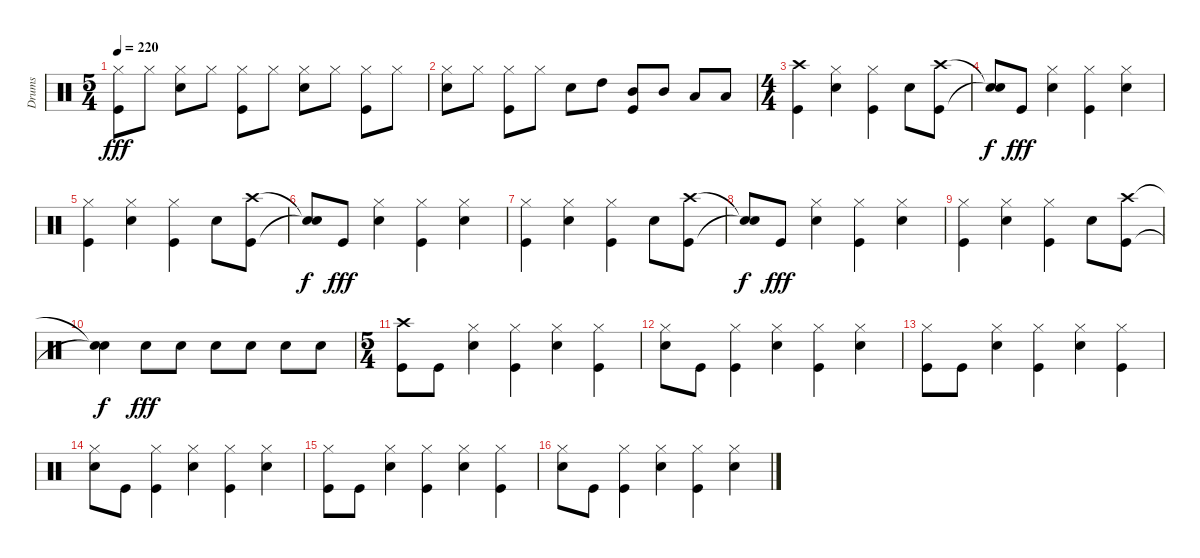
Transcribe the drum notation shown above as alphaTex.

\track ("Drums" "Drums") {instrument percussion}
\staff {score}
\articulation defaults
\ts (5 4)
\tempo 220
\clef neutral
\ks c
("Hi-Hat (closed)" "Kick (hit)").8{dy fff} "Hi-Hat (closed)".8 ("Hi-Hat (closed)" "Snare (hit) 2").8 "Hi-Hat (closed)".8 ("Hi-Hat (closed)" "Kick (hit)").8 "Hi-Hat (closed)".8 ("Hi-Hat (closed)" "Snare (hit) 2").8 "Hi-Hat (closed)".8 ("Hi-Hat (closed)" "Kick (hit)").8 "Hi-Hat (closed)".8 |
("Hi-Hat (closed)" "Snare (hit) 2").8 "Hi-Hat (closed)".8 ("Hi-Hat (closed)" "Kick (hit)").8 "Hi-Hat (closed)".8 "Snare (hit) 2".8 "High Tom (hit)".8 ("Mid Tom (hit)" "Kick (hit)").8 "Mid Tom (hit)".8 "Low Tom (hit)".8 "Low Tom (hit)".8 |
\ts (4 4)
("Crash high (hit)" "Kick (hit)").4 ("Hi-Hat (closed)" "Snare (hit) 2").4 ("Hi-Hat (closed)" "Kick (hit)").4 "Snare (hit) 2".8 ("Crash high (hit)" "Kick (hit)").8 |
("Snare (hit)"{t} "Snare (hit)"{t}).8{dy f} "Kick (hit)".8{dy fff} ("Hi-Hat (closed)" "Snare (hit) 2").4 ("Hi-Hat (closed)" "Kick (hit)").4 ("Hi-Hat (closed)" "Snare (hit) 2").4 |
("Hi-Hat (closed)" "Kick (hit)").4 ("Hi-Hat (closed)" "Snare (hit) 2").4 ("Hi-Hat (closed)" "Kick (hit)").4 "Snare (hit) 2".8 ("Crash high (hit)" "Kick (hit)").8 |
("Snare (hit)"{t} "Snare (hit)"{t}).8{dy f} "Kick (hit)".8{dy fff} ("Hi-Hat (closed)" "Snare (hit) 2").4 ("Hi-Hat (closed)" "Kick (hit)").4 ("Hi-Hat (closed)" "Snare (hit) 2").4 |
("Hi-Hat (closed)" "Kick (hit)").4 ("Hi-Hat (closed)" "Snare (hit) 2").4 ("Hi-Hat (closed)" "Kick (hit)").4 "Snare (hit) 2".8 ("Crash high (hit)" "Kick (hit)").8 |
("Snare (hit)"{t} "Snare (hit)"{t}).8{dy f} "Kick (hit)".8{dy fff} ("Hi-Hat (closed)" "Snare (hit) 2").4 ("Hi-Hat (closed)" "Kick (hit)").4 ("Hi-Hat (closed)" "Snare (hit) 2").4 |
("Hi-Hat (closed)" "Kick (hit)").4 ("Hi-Hat (closed)" "Snare (hit) 2").4 ("Hi-Hat (closed)" "Kick (hit)").4 "Snare (hit) 2".8 ("Crash high (hit)" "Kick (hit)").8 |
("Snare (hit)"{t} "Snare (hit)"{t}).4{dy f} "Snare (hit) 2".8{dy fff} "Snare (hit) 2".8 "Snare (hit) 2".8 "Snare (hit) 2".8 "Snare (hit) 2".8 "Snare (hit) 2".8 |
\ts (5 4)
("Crash high (hit)" "Kick (hit)").8 "Kick (hit)".8 ("Hi-Hat (closed)" "Snare (hit) 2").4 ("Hi-Hat (closed)" "Kick (hit)").4 ("Hi-Hat (closed)" "Snare (hit) 2").4 ("Hi-Hat (closed)" "Kick (hit)").4 |
("Hi-Hat (closed)" "Snare (hit) 2").8 "Kick (hit)".8 ("Hi-Hat (closed)" "Kick (hit)").4 ("Hi-Hat (closed)" "Snare (hit) 2").4 ("Hi-Hat (closed)" "Kick (hit)").4 ("Hi-Hat (closed)" "Snare (hit) 2").4 |
("Hi-Hat (closed)" "Kick (hit)").8 "Kick (hit)".8 ("Hi-Hat (closed)" "Snare (hit) 2").4 ("Hi-Hat (closed)" "Kick (hit)").4 ("Hi-Hat (closed)" "Snare (hit) 2").4 ("Hi-Hat (closed)" "Kick (hit)").4 |
("Hi-Hat (closed)" "Snare (hit) 2").8 "Kick (hit)".8 ("Hi-Hat (closed)" "Kick (hit)").4 ("Hi-Hat (closed)" "Snare (hit) 2").4 ("Hi-Hat (closed)" "Kick (hit)").4 ("Hi-Hat (closed)" "Snare (hit) 2").4 |
("Hi-Hat (closed)" "Kick (hit)").8 "Kick (hit)".8 ("Hi-Hat (closed)" "Snare (hit) 2").4 ("Hi-Hat (closed)" "Kick (hit)").4 ("Hi-Hat (closed)" "Snare (hit) 2").4 ("Hi-Hat (closed)" "Kick (hit)").4 |
("Hi-Hat (closed)" "Snare (hit) 2").8 "Kick (hit)".8 ("Hi-Hat (closed)" "Kick (hit)").4 ("Hi-Hat (closed)" "Snare (hit) 2").4 ("Hi-Hat (closed)" "Kick (hit)").4 ("Hi-Hat (closed)" "Snare (hit) 2").4
